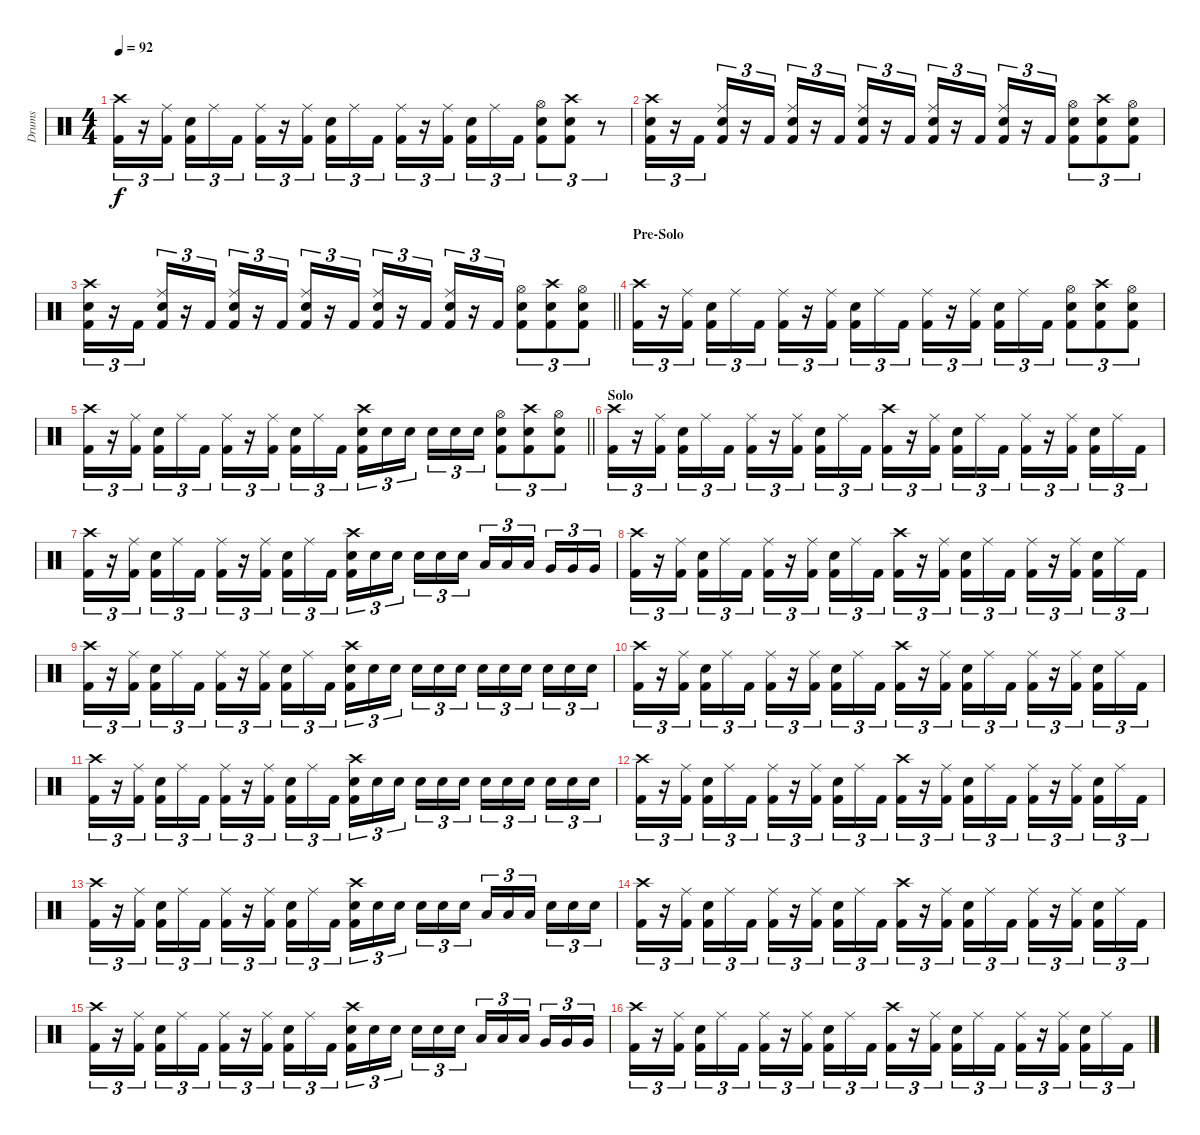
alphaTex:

\track ("Drums" "Drums") {instrument percussion}
\staff {score}
\articulation defaults
\ts (4 4)
\tempo 92
\clef neutral
\ks c
("Crash high (hit)" "Kick (hit) 2").16{tu (3 2) dy f} r.16{tu (3 2)} ("Ride (middle)" "Kick (hit) 2").16{tu (3 2) beam splitsecondary} ("Snare (hit) 2" "Kick (hit) 2").16{tu (3 2)} "Ride (middle)".16{tu (3 2)} "Kick (hit) 2".16{tu (3 2)} ("Ride (middle)" "Kick (hit) 2").16{tu (3 2)} r.16{tu (3 2)} ("Ride (middle)" "Kick (hit) 2").16{tu (3 2) beam splitsecondary} ("Snare (hit) 2" "Kick (hit) 2").16{tu (3 2)} "Ride (middle)".16{tu (3 2)} "Kick (hit) 2".16{tu (3 2)} ("Ride (middle)" "Kick (hit) 2").16{tu (3 2)} r.16{tu (3 2)} ("Ride (middle)" "Kick (hit) 2").16{tu (3 2) beam splitsecondary} ("Snare (hit) 2" "Kick (hit) 2").16{tu (3 2)} "Ride (middle)".16{tu (3 2)} "Kick (hit) 2".16{tu (3 2)} ("Hi-Hat (open)" "Snare (hit) 2" "Kick (hit) 2").8{tu (3 2)} ("Crash high (hit)" "Snare (hit) 2" "Kick (hit) 2").8{tu (3 2)} r.8{tu (3 2)} |
("Crash high (hit)" "Snare (hit) 2" "Kick (hit) 2").16{tu (3 2)} r.16{tu (3 2)} "Kick (hit) 2".16{tu (3 2)} ("Ride (middle)" "Snare (hit) 2" "Kick (hit) 2").16{tu (3 2)} r.16{tu (3 2)} "Kick (hit) 2".16{tu (3 2)} ("Ride (middle)" "Snare (hit) 2" "Kick (hit) 2").16{tu (3 2)} r.16{tu (3 2)} "Kick (hit) 2".16{tu (3 2)} ("Ride (middle)" "Snare (hit) 2" "Kick (hit) 2").16{tu (3 2)} r.16{tu (3 2)} "Kick (hit) 2".16{tu (3 2)} ("Ride (middle)" "Snare (hit) 2" "Kick (hit) 2").16{tu (3 2)} r.16{tu (3 2)} "Kick (hit) 2".16{tu (3 2)} ("Ride (middle)" "Snare (hit) 2" "Kick (hit) 2").16{tu (3 2)} r.16{tu (3 2)} "Kick (hit) 2".16{tu (3 2)} ("Hi-Hat (open)" "Snare (hit) 2" "Kick (hit) 2").8{tu (3 2)} ("Crash high (hit)" "Snare (hit) 2" "Kick (hit) 2").8{tu (3 2)} ("Hi-Hat (open)" "Snare (hit) 2" "Kick (hit) 2").8{tu (3 2)} |
\barLineRight lightlight
("Crash high (hit)" "Snare (hit) 2" "Kick (hit) 2").16{tu (3 2)} r.16{tu (3 2)} "Kick (hit) 2".16{tu (3 2)} ("Ride (middle)" "Snare (hit) 2" "Kick (hit) 2").16{tu (3 2)} r.16{tu (3 2)} "Kick (hit) 2".16{tu (3 2)} ("Ride (middle)" "Snare (hit) 2" "Kick (hit) 2").16{tu (3 2)} r.16{tu (3 2)} "Kick (hit) 2".16{tu (3 2)} ("Ride (middle)" "Snare (hit) 2" "Kick (hit) 2").16{tu (3 2)} r.16{tu (3 2)} "Kick (hit) 2".16{tu (3 2)} ("Ride (middle)" "Snare (hit) 2" "Kick (hit) 2").16{tu (3 2)} r.16{tu (3 2)} "Kick (hit) 2".16{tu (3 2)} ("Ride (middle)" "Snare (hit) 2" "Kick (hit) 2").16{tu (3 2)} r.16{tu (3 2)} "Kick (hit) 2".16{tu (3 2)} ("Hi-Hat (open)" "Snare (hit) 2" "Kick (hit) 2").8{tu (3 2)} ("Crash high (hit)" "Snare (hit) 2" "Kick (hit) 2").8{tu (3 2)} ("Hi-Hat (open)" "Snare (hit) 2" "Kick (hit) 2").8{tu (3 2)} |
\section ("" "Pre-Solo")
("Crash high (hit)" "Kick (hit) 2").16{tu (3 2)} r.16{tu (3 2)} ("Ride (middle)" "Kick (hit) 2").16{tu (3 2) beam splitsecondary} ("Snare (hit) 2" "Kick (hit) 2").16{tu (3 2)} "Ride (middle)".16{tu (3 2)} "Kick (hit) 2".16{tu (3 2)} ("Ride (middle)" "Kick (hit) 2").16{tu (3 2)} r.16{tu (3 2)} ("Ride (middle)" "Kick (hit) 2").16{tu (3 2) beam splitsecondary} ("Snare (hit) 2" "Kick (hit) 2").16{tu (3 2)} "Ride (middle)".16{tu (3 2)} "Kick (hit) 2".16{tu (3 2)} ("Ride (middle)" "Kick (hit) 2").16{tu (3 2)} r.16{tu (3 2)} ("Ride (middle)" "Kick (hit) 2").16{tu (3 2) beam splitsecondary} ("Snare (hit) 2" "Kick (hit) 2").16{tu (3 2)} "Ride (middle)".16{tu (3 2)} "Kick (hit) 2".16{tu (3 2)} ("Hi-Hat (open)" "Snare (hit) 2" "Kick (hit) 2").8{tu (3 2)} ("Crash high (hit)" "Snare (hit) 2" "Kick (hit) 2").8{tu (3 2)} ("Hi-Hat (open)" "Snare (hit) 2" "Kick (hit) 2").8{tu (3 2)} |
\barLineRight lightlight
("Crash high (hit)" "Kick (hit) 2").16{tu (3 2)} r.16{tu (3 2)} ("Ride (middle)" "Kick (hit) 2").16{tu (3 2) beam splitsecondary} ("Snare (hit) 2" "Kick (hit) 2").16{tu (3 2)} "Ride (middle)".16{tu (3 2)} "Kick (hit) 2".16{tu (3 2)} ("Ride (middle)" "Kick (hit) 2").16{tu (3 2)} r.16{tu (3 2)} ("Ride (middle)" "Kick (hit) 2").16{tu (3 2) beam splitsecondary} ("Snare (hit) 2" "Kick (hit) 2").16{tu (3 2)} "Ride (middle)".16{tu (3 2)} "Kick (hit) 2".16{tu (3 2)} ("Crash high (hit)" "Snare (hit) 2" "Kick (hit) 2").16{tu (3 2)} "Snare (hit) 2".16{tu (3 2)} "Snare (hit) 2".16{tu (3 2) beam splitsecondary} "Snare (hit) 2".16{tu (3 2)} "Snare (hit) 2".16{tu (3 2)} "Snare (hit) 2".16{tu (3 2)} ("Hi-Hat (open)" "Snare (hit) 2" "Kick (hit) 2").8{tu (3 2)} ("Crash high (hit)" "Snare (hit) 2" "Kick (hit) 2").8{tu (3 2)} ("Hi-Hat (open)" "Snare (hit) 2" "Kick (hit) 2").8{tu (3 2)} |
\section ("" "Solo")
("Crash high (hit)" "Kick (hit) 2").16{tu (3 2)} r.16{tu (3 2)} ("Ride (middle)" "Kick (hit) 2").16{tu (3 2) beam splitsecondary} ("Snare (hit) 2" "Kick (hit) 2").16{tu (3 2)} "Ride (middle)".16{tu (3 2)} "Kick (hit) 2".16{tu (3 2)} ("Ride (middle)" "Kick (hit) 2").16{tu (3 2)} r.16{tu (3 2)} ("Ride (middle)" "Kick (hit) 2").16{tu (3 2) beam splitsecondary} ("Snare (hit) 2" "Kick (hit) 2").16{tu (3 2)} "Ride (middle)".16{tu (3 2)} "Kick (hit) 2".16{tu (3 2)} ("Crash high (hit)" "Kick (hit) 2").16{tu (3 2)} r.16{tu (3 2)} ("Ride (middle)" "Kick (hit) 2").16{tu (3 2) beam splitsecondary} ("Snare (hit) 2" "Kick (hit) 2").16{tu (3 2)} "Ride (middle)".16{tu (3 2)} "Kick (hit) 2".16{tu (3 2)} ("Ride (middle)" "Kick (hit) 2").16{tu (3 2)} r.16{tu (3 2)} ("Ride (middle)" "Kick (hit) 2").16{tu (3 2) beam splitsecondary} ("Snare (hit) 2" "Kick (hit) 2").16{tu (3 2)} "Ride (middle)".16{tu (3 2)} "Kick (hit) 2".16{tu (3 2)} |
("Crash high (hit)" "Kick (hit) 2").16{tu (3 2)} r.16{tu (3 2)} ("Ride (middle)" "Kick (hit) 2").16{tu (3 2) beam splitsecondary} ("Snare (hit) 2" "Kick (hit) 2").16{tu (3 2)} "Ride (middle)".16{tu (3 2)} "Kick (hit) 2".16{tu (3 2)} ("Ride (middle)" "Kick (hit) 2").16{tu (3 2)} r.16{tu (3 2)} ("Ride (middle)" "Kick (hit) 2").16{tu (3 2) beam splitsecondary} ("Snare (hit) 2" "Kick (hit) 2").16{tu (3 2)} "Ride (middle)".16{tu (3 2)} "Kick (hit) 2".16{tu (3 2)} ("Crash high (hit)" "Snare (hit) 2" "Kick (hit) 2").16{tu (3 2)} "Snare (hit) 2".16{tu (3 2)} "Snare (hit) 2".16{tu (3 2) beam splitsecondary} "Snare (hit) 2".16{tu (3 2)} "Snare (hit) 2".16{tu (3 2)} "Snare (hit) 2".16{tu (3 2)} "Low Tom (hit)".16{tu (3 2)} "Low Tom (hit)".16{tu (3 2)} "Low Tom (hit)".16{tu (3 2) beam splitsecondary} "Very Low Tom (hit)".16{tu (3 2)} "Very Low Tom (hit)".16{tu (3 2)} "Very Low Tom (hit)".16{tu (3 2)} |
("Crash high (hit)" "Kick (hit) 2").16{tu (3 2)} r.16{tu (3 2)} ("Ride (middle)" "Kick (hit) 2").16{tu (3 2) beam splitsecondary} ("Snare (hit) 2" "Kick (hit) 2").16{tu (3 2)} "Ride (middle)".16{tu (3 2)} "Kick (hit) 2".16{tu (3 2)} ("Ride (middle)" "Kick (hit) 2").16{tu (3 2)} r.16{tu (3 2)} ("Ride (middle)" "Kick (hit) 2").16{tu (3 2) beam splitsecondary} ("Snare (hit) 2" "Kick (hit) 2").16{tu (3 2)} "Ride (middle)".16{tu (3 2)} "Kick (hit) 2".16{tu (3 2)} ("Crash high (hit)" "Kick (hit) 2").16{tu (3 2)} r.16{tu (3 2)} ("Ride (middle)" "Kick (hit) 2").16{tu (3 2) beam splitsecondary} ("Snare (hit) 2" "Kick (hit) 2").16{tu (3 2)} "Ride (middle)".16{tu (3 2)} "Kick (hit) 2".16{tu (3 2)} ("Ride (middle)" "Kick (hit) 2").16{tu (3 2)} r.16{tu (3 2)} ("Ride (middle)" "Kick (hit) 2").16{tu (3 2) beam splitsecondary} ("Snare (hit) 2" "Kick (hit) 2").16{tu (3 2)} "Ride (middle)".16{tu (3 2)} "Kick (hit) 2".16{tu (3 2)} |
("Crash high (hit)" "Kick (hit) 2").16{tu (3 2)} r.16{tu (3 2)} ("Ride (middle)" "Kick (hit) 2").16{tu (3 2) beam splitsecondary} ("Snare (hit) 2" "Kick (hit) 2").16{tu (3 2)} "Ride (middle)".16{tu (3 2)} "Kick (hit) 2".16{tu (3 2)} ("Ride (middle)" "Kick (hit) 2").16{tu (3 2)} r.16{tu (3 2)} ("Ride (middle)" "Kick (hit) 2").16{tu (3 2) beam splitsecondary} ("Snare (hit) 2" "Kick (hit) 2").16{tu (3 2)} "Ride (middle)".16{tu (3 2)} "Kick (hit) 2".16{tu (3 2)} ("Crash high (hit)" "Snare (hit) 2" "Kick (hit) 2").16{tu (3 2)} "Snare (hit) 2".16{tu (3 2)} "Snare (hit) 2".16{tu (3 2) beam splitsecondary} "Snare (hit) 2".16{tu (3 2)} "Snare (hit) 2".16{tu (3 2)} "Snare (hit) 2".16{tu (3 2)} "Snare (hit) 2".16{tu (3 2)} "Snare (hit) 2".16{tu (3 2)} "Snare (hit) 2".16{tu (3 2) beam splitsecondary} "Snare (hit) 2".16{tu (3 2)} "Snare (hit) 2".16{tu (3 2)} "Snare (hit) 2".16{tu (3 2)} |
("Crash high (hit)" "Kick (hit) 2").16{tu (3 2)} r.16{tu (3 2)} ("Ride (middle)" "Kick (hit) 2").16{tu (3 2) beam splitsecondary} ("Snare (hit) 2" "Kick (hit) 2").16{tu (3 2)} "Ride (middle)".16{tu (3 2)} "Kick (hit) 2".16{tu (3 2)} ("Ride (middle)" "Kick (hit) 2").16{tu (3 2)} r.16{tu (3 2)} ("Ride (middle)" "Kick (hit) 2").16{tu (3 2) beam splitsecondary} ("Snare (hit) 2" "Kick (hit) 2").16{tu (3 2)} "Ride (middle)".16{tu (3 2)} "Kick (hit) 2".16{tu (3 2)} ("Crash high (hit)" "Kick (hit) 2").16{tu (3 2)} r.16{tu (3 2)} ("Ride (middle)" "Kick (hit) 2").16{tu (3 2) beam splitsecondary} ("Snare (hit) 2" "Kick (hit) 2").16{tu (3 2)} "Ride (middle)".16{tu (3 2)} "Kick (hit) 2".16{tu (3 2)} ("Ride (middle)" "Kick (hit) 2").16{tu (3 2)} r.16{tu (3 2)} ("Ride (middle)" "Kick (hit) 2").16{tu (3 2) beam splitsecondary} ("Snare (hit) 2" "Kick (hit) 2").16{tu (3 2)} "Ride (middle)".16{tu (3 2)} "Kick (hit) 2".16{tu (3 2)} |
("Crash high (hit)" "Kick (hit) 2").16{tu (3 2)} r.16{tu (3 2)} ("Ride (middle)" "Kick (hit) 2").16{tu (3 2) beam splitsecondary} ("Snare (hit) 2" "Kick (hit) 2").16{tu (3 2)} "Ride (middle)".16{tu (3 2)} "Kick (hit) 2".16{tu (3 2)} ("Ride (middle)" "Kick (hit) 2").16{tu (3 2)} r.16{tu (3 2)} ("Ride (middle)" "Kick (hit) 2").16{tu (3 2) beam splitsecondary} ("Snare (hit) 2" "Kick (hit) 2").16{tu (3 2)} "Ride (middle)".16{tu (3 2)} "Kick (hit) 2".16{tu (3 2)} ("Crash high (hit)" "Snare (hit) 2" "Kick (hit) 2").16{tu (3 2)} "Snare (hit) 2".16{tu (3 2)} "Snare (hit) 2".16{tu (3 2) beam splitsecondary} "Snare (hit) 2".16{tu (3 2)} "Snare (hit) 2".16{tu (3 2)} "Snare (hit) 2".16{tu (3 2)} "Snare (hit) 2".16{tu (3 2)} "Snare (hit) 2".16{tu (3 2)} "Snare (hit) 2".16{tu (3 2) beam splitsecondary} "Snare (hit) 2".16{tu (3 2)} "Snare (hit) 2".16{tu (3 2)} "Snare (hit) 2".16{tu (3 2)} |
("Crash high (hit)" "Kick (hit) 2").16{tu (3 2)} r.16{tu (3 2)} ("Ride (middle)" "Kick (hit) 2").16{tu (3 2) beam splitsecondary} ("Snare (hit) 2" "Kick (hit) 2").16{tu (3 2)} "Ride (middle)".16{tu (3 2)} "Kick (hit) 2".16{tu (3 2)} ("Ride (middle)" "Kick (hit) 2").16{tu (3 2)} r.16{tu (3 2)} ("Ride (middle)" "Kick (hit) 2").16{tu (3 2) beam splitsecondary} ("Snare (hit) 2" "Kick (hit) 2").16{tu (3 2)} "Ride (middle)".16{tu (3 2)} "Kick (hit) 2".16{tu (3 2)} ("Crash high (hit)" "Kick (hit) 2").16{tu (3 2)} r.16{tu (3 2)} ("Ride (middle)" "Kick (hit) 2").16{tu (3 2) beam splitsecondary} ("Snare (hit) 2" "Kick (hit) 2").16{tu (3 2)} "Ride (middle)".16{tu (3 2)} "Kick (hit) 2".16{tu (3 2)} ("Ride (middle)" "Kick (hit) 2").16{tu (3 2)} r.16{tu (3 2)} ("Ride (middle)" "Kick (hit) 2").16{tu (3 2) beam splitsecondary} ("Snare (hit) 2" "Kick (hit) 2").16{tu (3 2)} "Ride (middle)".16{tu (3 2)} "Kick (hit) 2".16{tu (3 2)} |
("Crash high (hit)" "Kick (hit) 2").16{tu (3 2)} r.16{tu (3 2)} ("Ride (middle)" "Kick (hit) 2").16{tu (3 2) beam splitsecondary} ("Snare (hit) 2" "Kick (hit) 2").16{tu (3 2)} "Ride (middle)".16{tu (3 2)} "Kick (hit) 2".16{tu (3 2)} ("Ride (middle)" "Kick (hit) 2").16{tu (3 2)} r.16{tu (3 2)} ("Ride (middle)" "Kick (hit) 2").16{tu (3 2) beam splitsecondary} ("Snare (hit) 2" "Kick (hit) 2").16{tu (3 2)} "Ride (middle)".16{tu (3 2)} "Kick (hit) 2".16{tu (3 2)} ("Crash high (hit)" "Snare (hit) 2" "Kick (hit) 2").16{tu (3 2)} "Snare (hit) 2".16{tu (3 2)} "Snare (hit) 2".16{tu (3 2) beam splitsecondary} "Snare (hit) 2".16{tu (3 2)} "Snare (hit) 2".16{tu (3 2)} "Snare (hit) 2".16{tu (3 2)} "Low Tom (hit)".16{tu (3 2)} "Low Tom (hit)".16{tu (3 2)} "Low Tom (hit)".16{tu (3 2) beam splitsecondary} "Snare (hit) 2".16{tu (3 2)} "Snare (hit) 2".16{tu (3 2)} "Snare (hit) 2".16{tu (3 2)} |
("Crash high (hit)" "Kick (hit) 2").16{tu (3 2)} r.16{tu (3 2)} ("Ride (middle)" "Kick (hit) 2").16{tu (3 2) beam splitsecondary} ("Snare (hit) 2" "Kick (hit) 2").16{tu (3 2)} "Ride (middle)".16{tu (3 2)} "Kick (hit) 2".16{tu (3 2)} ("Ride (middle)" "Kick (hit) 2").16{tu (3 2)} r.16{tu (3 2)} ("Ride (middle)" "Kick (hit) 2").16{tu (3 2) beam splitsecondary} ("Snare (hit) 2" "Kick (hit) 2").16{tu (3 2)} "Ride (middle)".16{tu (3 2)} "Kick (hit) 2".16{tu (3 2)} ("Crash high (hit)" "Kick (hit) 2").16{tu (3 2)} r.16{tu (3 2)} ("Ride (middle)" "Kick (hit) 2").16{tu (3 2) beam splitsecondary} ("Snare (hit) 2" "Kick (hit) 2").16{tu (3 2)} "Ride (middle)".16{tu (3 2)} "Kick (hit) 2".16{tu (3 2)} ("Ride (middle)" "Kick (hit) 2").16{tu (3 2)} r.16{tu (3 2)} ("Ride (middle)" "Kick (hit) 2").16{tu (3 2) beam splitsecondary} ("Snare (hit) 2" "Kick (hit) 2").16{tu (3 2)} "Ride (middle)".16{tu (3 2)} "Kick (hit) 2".16{tu (3 2)} |
("Crash high (hit)" "Kick (hit) 2").16{tu (3 2)} r.16{tu (3 2)} ("Ride (middle)" "Kick (hit) 2").16{tu (3 2) beam splitsecondary} ("Snare (hit) 2" "Kick (hit) 2").16{tu (3 2)} "Ride (middle)".16{tu (3 2)} "Kick (hit) 2".16{tu (3 2)} ("Ride (middle)" "Kick (hit) 2").16{tu (3 2)} r.16{tu (3 2)} ("Ride (middle)" "Kick (hit) 2").16{tu (3 2) beam splitsecondary} ("Snare (hit) 2" "Kick (hit) 2").16{tu (3 2)} "Ride (middle)".16{tu (3 2)} "Kick (hit) 2".16{tu (3 2)} ("Crash high (hit)" "Snare (hit) 2" "Kick (hit) 2").16{tu (3 2)} "Snare (hit) 2".16{tu (3 2)} "Snare (hit) 2".16{tu (3 2) beam splitsecondary} "Snare (hit) 2".16{tu (3 2)} "Snare (hit) 2".16{tu (3 2)} "Snare (hit) 2".16{tu (3 2)} "Low Tom (hit)".16{tu (3 2)} "Low Tom (hit)".16{tu (3 2)} "Low Tom (hit)".16{tu (3 2) beam splitsecondary} "Very Low Tom (hit)".16{tu (3 2)} "Very Low Tom (hit)".16{tu (3 2)} "Very Low Tom (hit)".16{tu (3 2)} |
("Crash high (hit)" "Kick (hit) 2").16{tu (3 2)} r.16{tu (3 2)} ("Ride (middle)" "Kick (hit) 2").16{tu (3 2) beam splitsecondary} ("Snare (hit) 2" "Kick (hit) 2").16{tu (3 2)} "Ride (middle)".16{tu (3 2)} "Kick (hit) 2".16{tu (3 2)} ("Ride (middle)" "Kick (hit) 2").16{tu (3 2)} r.16{tu (3 2)} ("Ride (middle)" "Kick (hit) 2").16{tu (3 2) beam splitsecondary} ("Snare (hit) 2" "Kick (hit) 2").16{tu (3 2)} "Ride (middle)".16{tu (3 2)} "Kick (hit) 2".16{tu (3 2)} ("Crash high (hit)" "Kick (hit) 2").16{tu (3 2)} r.16{tu (3 2)} ("Ride (middle)" "Kick (hit) 2").16{tu (3 2) beam splitsecondary} ("Snare (hit) 2" "Kick (hit) 2").16{tu (3 2)} "Ride (middle)".16{tu (3 2)} "Kick (hit) 2".16{tu (3 2)} ("Ride (middle)" "Kick (hit) 2").16{tu (3 2)} r.16{tu (3 2)} ("Ride (middle)" "Kick (hit) 2").16{tu (3 2) beam splitsecondary} ("Snare (hit) 2" "Kick (hit) 2").16{tu (3 2)} "Ride (middle)".16{tu (3 2)} "Kick (hit) 2".16{tu (3 2)}
